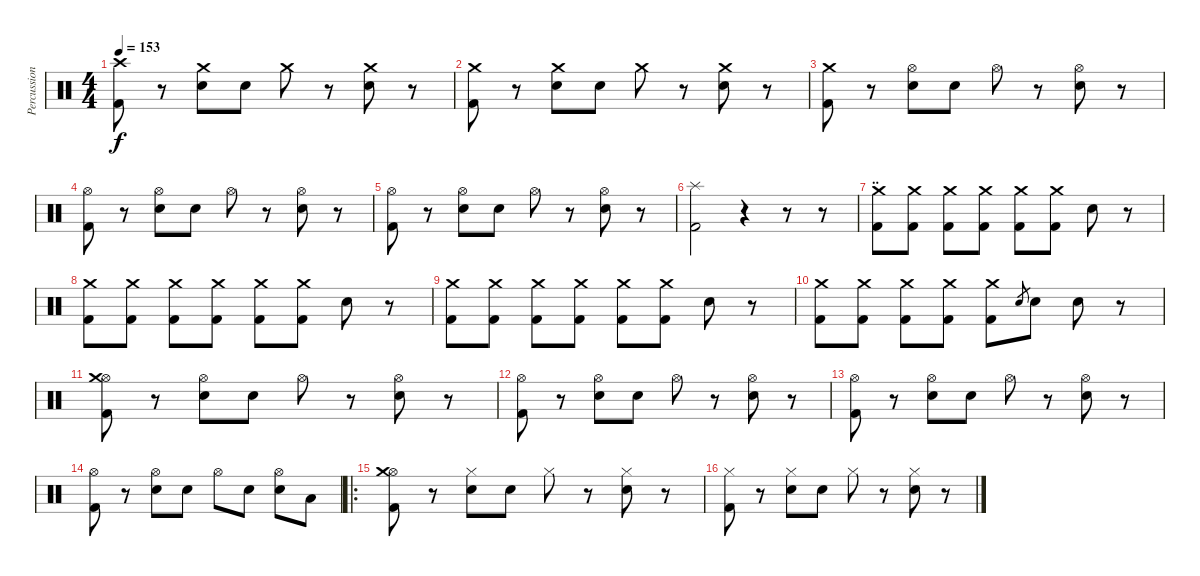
\track ("Percussion" "Percussion") {instrument percussion}
\staff {score}
\articulation defaults
\ts (4 4)
\tempo 153
\clef neutral
\ks c
("Crash high (hit)" "Kick (hit) 2").8{dy f} r.8 ("Crash medium (hit)" "Electric Snare (hit)").8 "Electric Snare (hit)".8 "Crash medium (hit)".8 r.8 ("Crash medium (hit)" "Electric Snare (hit)").8 r.8 |
("Crash medium (hit)" "Kick (hit) 2").8 r.8 ("Crash medium (hit)" "Electric Snare (hit)").8 "Electric Snare (hit)".8 "Crash medium (hit)".8 r.8 ("Crash medium (hit)" "Electric Snare (hit)").8 r.8 |
("Crash medium (hit)" "Kick (hit) 2").8 r.8 ("Hi-Hat (open)" "Electric Snare (hit)").8 "Electric Snare (hit)".8 "Hi-Hat (open)".8 r.8 ("Hi-Hat (open)" "Electric Snare (hit)").8 r.8 |
("Hi-Hat (open)" "Kick (hit) 2").8 r.8 ("Hi-Hat (open)" "Electric Snare (hit)").8 "Electric Snare (hit)".8 "Hi-Hat (open)".8 r.8 ("Hi-Hat (open)" "Electric Snare (hit)").8 r.8 |
("Hi-Hat (open)" "Kick (hit) 2").8 r.8 ("Hi-Hat (open)" "Electric Snare (hit)").8 "Electric Snare (hit)".8 "Hi-Hat (open)".8 r.8 ("Hi-Hat (open)" "Electric Snare (hit)").8 r.8 |
("Splash (hit)" "Kick (hit) 2").2 r.4 r.8 r.8 |
\section ("" "..")
("Crash medium (hit)" "Kick (hit) 2").8 ("Crash medium (hit)" "Kick (hit) 2").8 ("Crash medium (hit)" "Kick (hit) 2").8 ("Crash medium (hit)" "Kick (hit) 2").8 ("Crash medium (hit)" "Kick (hit) 2").8 ("Crash medium (hit)" "Kick (hit) 2").8 "Electric Snare (hit)".8 r.8 |
("Crash medium (hit)" "Kick (hit) 2").8 ("Crash medium (hit)" "Kick (hit) 2").8 ("Crash medium (hit)" "Kick (hit) 2").8 ("Crash medium (hit)" "Kick (hit) 2").8 ("Crash medium (hit)" "Kick (hit) 2").8 ("Crash medium (hit)" "Kick (hit) 2").8 "Electric Snare (hit)".8 r.8 |
("Crash medium (hit)" "Kick (hit) 2").8 ("Crash medium (hit)" "Kick (hit) 2").8 ("Crash medium (hit)" "Kick (hit) 2").8 ("Crash medium (hit)" "Kick (hit) 2").8 ("Crash medium (hit)" "Kick (hit) 2").8 ("Crash medium (hit)" "Kick (hit) 2").8 "Electric Snare (hit)".8 r.8 |
("Crash medium (hit)" "Kick (hit) 2").8 ("Crash medium (hit)" "Kick (hit) 2").8 ("Crash medium (hit)" "Kick (hit) 2").8 ("Crash medium (hit)" "Kick (hit) 2").8 ("Crash medium (hit)" "Kick (hit) 2").8 "Electric Snare (hit)".8{gr} "Electric Snare (hit)".8 "Electric Snare (hit)".8 r.8 |
\section ("" "")
("Hi-Hat (open)" "Crash medium (hit)" "Kick (hit) 2").8 r.8 ("Hi-Hat (open)" "Electric Snare (hit)").8 "Electric Snare (hit)".8 "Hi-Hat (open)".8 r.8 ("Hi-Hat (open)" "Electric Snare (hit)").8 r.8 |
("Hi-Hat (open)" "Kick (hit) 2").8 r.8 ("Hi-Hat (open)" "Electric Snare (hit)").8 "Electric Snare (hit)".8 "Hi-Hat (open)".8 r.8 ("Hi-Hat (open)" "Electric Snare (hit)").8 r.8 |
("Hi-Hat (open)" "Kick (hit) 2").8 r.8 ("Hi-Hat (open)" "Electric Snare (hit)").8 "Electric Snare (hit)".8 "Hi-Hat (open)".8 r.8 ("Hi-Hat (open)" "Electric Snare (hit)").8 r.8 |
("Hi-Hat (open)" "Kick (hit) 2").8 r.8 ("Hi-Hat (open)" "Electric Snare (hit)").8 "Electric Snare (hit)".8 "Hi-Hat (open)".8 "Electric Snare (hit)".8 ("Hi-Hat (open)" "Electric Snare (hit)").8 "Low Floor Tom (hit)".8 |
\ro
\section ("" "")
("Hi-Hat (open)" "Crash medium (hit)" "Kick (hit) 2").8 r.8 ("Hi-Hat (closed)" "Electric Snare (hit)").8 "Electric Snare (hit)".8 "Hi-Hat (closed)".8 r.8 ("Hi-Hat (closed)" "Electric Snare (hit)").8 r.8 |
("Hi-Hat (closed)" "Kick (hit) 2").8 r.8 ("Hi-Hat (closed)" "Electric Snare (hit)").8 "Electric Snare (hit)".8 "Hi-Hat (closed)".8 r.8 ("Hi-Hat (closed)" "Electric Snare (hit)").8 r.8
